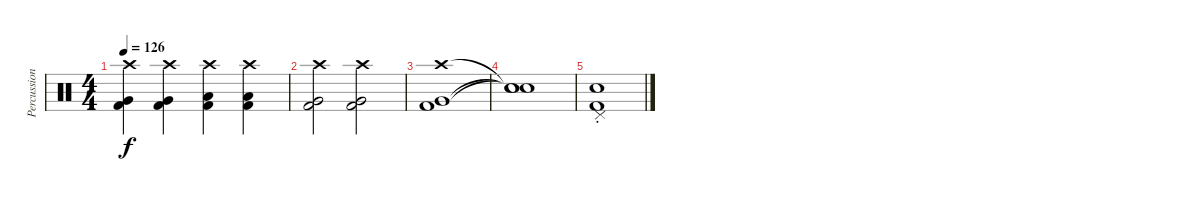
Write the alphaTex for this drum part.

\track ("Percussion" "Percussion") {instrument percussion}
\staff {score}
\articulation defaults
\ts (4 4)
\tempo 126
\clef neutral
\ks c
("Crash high (hit)" "Kick (hit) 2" "Very Low Tom (hit)").4{dy f} ("Crash high (hit)" "Kick (hit) 2" "Very Low Tom (hit)").4 ("Crash high (hit)" "Kick (hit) 2" "Low Floor Tom (hit)").4 ("Crash high (hit)" "Kick (hit) 2" "Low Floor Tom (hit)").4 |
("Crash high (hit)" "Kick (hit) 2" "Very Low Tom (hit)").2 ("Crash high (hit)" "Kick (hit) 2" "Very Low Tom (hit)").2 |
("Crash high (hit)" "Kick (hit) 2" "Very Low Tom (hit)").1 |
("Snare (hit)"{t} "Snare (hit)"{t} "Snare (hit)"{t}).1 |
("Pedal Hi-Hat (hit)"{st} "Kick (hit) 2"{st} "Snare (hit) 2"{st}).1
